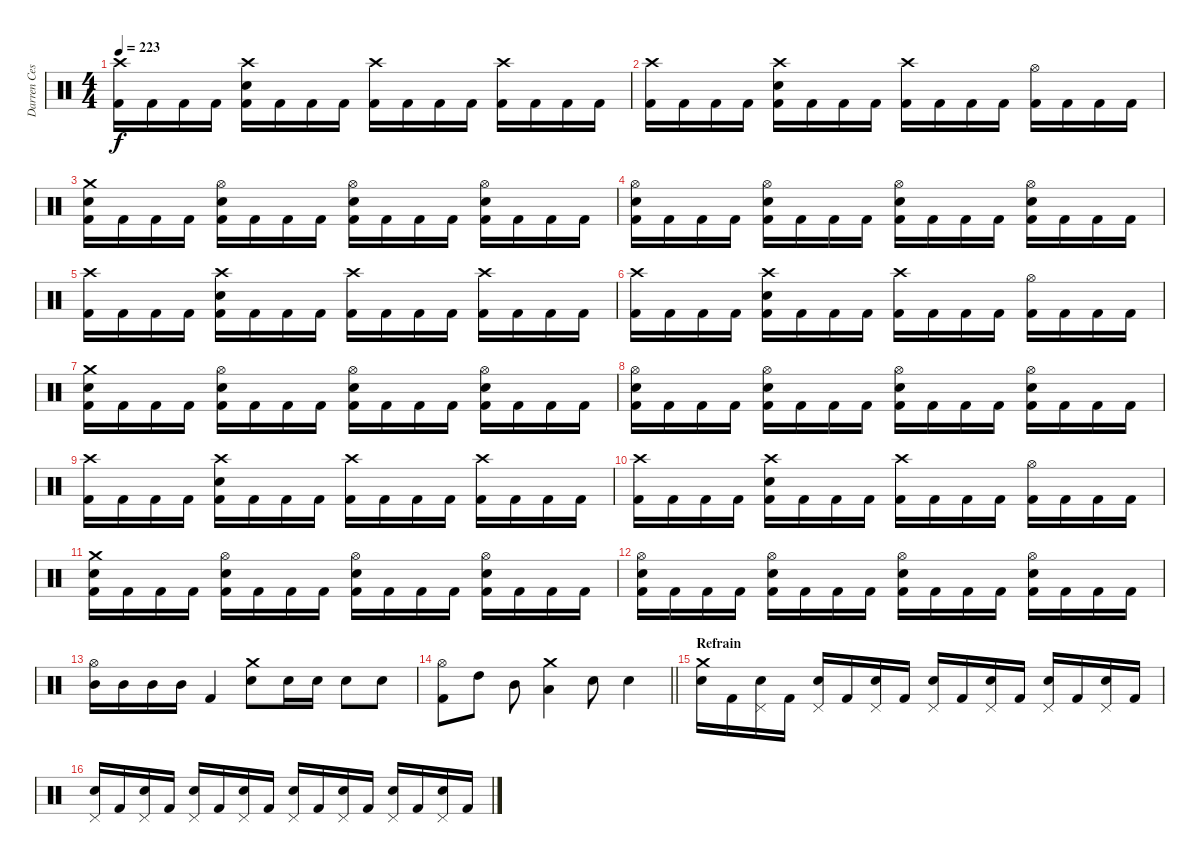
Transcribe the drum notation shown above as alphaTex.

\track ("Darren Cesca" "Darren Ces") {instrument percussion}
\staff {score}
\articulation defaults
\ts (4 4)
\tempo 223
\clef neutral
\ks c
("Crash high (hit)" "Kick (hit) 2").16{dy f} "Kick (hit) 2".16 "Kick (hit) 2".16 "Kick (hit) 2".16 ("Crash high (hit)" "Electric Snare (hit)" "Kick (hit) 2").16 "Kick (hit) 2".16 "Kick (hit) 2".16 "Kick (hit) 2".16 ("Crash high (hit)" "Kick (hit) 2").16 "Kick (hit) 2".16 "Kick (hit) 2".16 "Kick (hit) 2".16 ("Crash high (hit)" "Kick (hit) 2").16 "Kick (hit) 2".16 "Kick (hit) 2".16 "Kick (hit) 2".16 |
("Crash high (hit)" "Kick (hit) 2").16 "Kick (hit) 2".16 "Kick (hit) 2".16 "Kick (hit) 2".16 ("Crash high (hit)" "Electric Snare (hit)" "Kick (hit) 2").16 "Kick (hit) 2".16 "Kick (hit) 2".16 "Kick (hit) 2".16 ("Crash high (hit)" "Kick (hit) 2").16 "Kick (hit) 2".16 "Kick (hit) 2".16 "Kick (hit) 2".16 ("Hi-Hat (open)" "Kick (hit) 2").16 "Kick (hit) 2".16 "Kick (hit) 2".16 "Kick (hit) 2".16 |
("Crash medium (hit)" "Electric Snare (hit)" "Kick (hit) 2").16 "Kick (hit) 2".16 "Kick (hit) 2".16 "Kick (hit) 2".16 ("Hi-Hat (open)" "Electric Snare (hit)" "Kick (hit) 2").16 "Kick (hit) 2".16 "Kick (hit) 2".16 "Kick (hit) 2".16 ("Hi-Hat (open)" "Electric Snare (hit)" "Kick (hit) 2").16 "Kick (hit) 2".16 "Kick (hit) 2".16 "Kick (hit) 2".16 ("Hi-Hat (open)" "Electric Snare (hit)" "Kick (hit) 2").16 "Kick (hit) 2".16 "Kick (hit) 2".16 "Kick (hit) 2".16 |
("Hi-Hat (open)" "Electric Snare (hit)" "Kick (hit) 2").16 "Kick (hit) 2".16 "Kick (hit) 2".16 "Kick (hit) 2".16 ("Hi-Hat (open)" "Electric Snare (hit)" "Kick (hit) 2").16 "Kick (hit) 2".16 "Kick (hit) 2".16 "Kick (hit) 2".16 ("Hi-Hat (open)" "Electric Snare (hit)" "Kick (hit) 2").16 "Kick (hit) 2".16 "Kick (hit) 2".16 "Kick (hit) 2".16 ("Hi-Hat (open)" "Electric Snare (hit)" "Kick (hit) 2").16 "Kick (hit) 2".16 "Kick (hit) 2".16 "Kick (hit) 2".16 |
("Crash high (hit)" "Kick (hit) 2").16 "Kick (hit) 2".16 "Kick (hit) 2".16 "Kick (hit) 2".16 ("Crash high (hit)" "Electric Snare (hit)" "Kick (hit) 2").16 "Kick (hit) 2".16 "Kick (hit) 2".16 "Kick (hit) 2".16 ("Crash high (hit)" "Kick (hit) 2").16 "Kick (hit) 2".16 "Kick (hit) 2".16 "Kick (hit) 2".16 ("Crash high (hit)" "Kick (hit) 2").16 "Kick (hit) 2".16 "Kick (hit) 2".16 "Kick (hit) 2".16 |
("Crash high (hit)" "Kick (hit) 2").16 "Kick (hit) 2".16 "Kick (hit) 2".16 "Kick (hit) 2".16 ("Crash high (hit)" "Electric Snare (hit)" "Kick (hit) 2").16 "Kick (hit) 2".16 "Kick (hit) 2".16 "Kick (hit) 2".16 ("Crash high (hit)" "Kick (hit) 2").16 "Kick (hit) 2".16 "Kick (hit) 2".16 "Kick (hit) 2".16 ("Hi-Hat (open)" "Kick (hit) 2").16 "Kick (hit) 2".16 "Kick (hit) 2".16 "Kick (hit) 2".16 |
("Crash medium (hit)" "Electric Snare (hit)" "Kick (hit) 2").16 "Kick (hit) 2".16 "Kick (hit) 2".16 "Kick (hit) 2".16 ("Hi-Hat (open)" "Electric Snare (hit)" "Kick (hit) 2").16 "Kick (hit) 2".16 "Kick (hit) 2".16 "Kick (hit) 2".16 ("Hi-Hat (open)" "Electric Snare (hit)" "Kick (hit) 2").16 "Kick (hit) 2".16 "Kick (hit) 2".16 "Kick (hit) 2".16 ("Hi-Hat (open)" "Electric Snare (hit)" "Kick (hit) 2").16 "Kick (hit) 2".16 "Kick (hit) 2".16 "Kick (hit) 2".16 |
("Hi-Hat (open)" "Electric Snare (hit)" "Kick (hit) 2").16 "Kick (hit) 2".16 "Kick (hit) 2".16 "Kick (hit) 2".16 ("Hi-Hat (open)" "Electric Snare (hit)" "Kick (hit) 2").16 "Kick (hit) 2".16 "Kick (hit) 2".16 "Kick (hit) 2".16 ("Hi-Hat (open)" "Electric Snare (hit)" "Kick (hit) 2").16 "Kick (hit) 2".16 "Kick (hit) 2".16 "Kick (hit) 2".16 ("Hi-Hat (open)" "Electric Snare (hit)" "Kick (hit) 2").16 "Kick (hit) 2".16 "Kick (hit) 2".16 "Kick (hit) 2".16 |
("Crash high (hit)" "Kick (hit) 2").16 "Kick (hit) 2".16 "Kick (hit) 2".16 "Kick (hit) 2".16 ("Crash high (hit)" "Electric Snare (hit)" "Kick (hit) 2").16 "Kick (hit) 2".16 "Kick (hit) 2".16 "Kick (hit) 2".16 ("Crash high (hit)" "Kick (hit) 2").16 "Kick (hit) 2".16 "Kick (hit) 2".16 "Kick (hit) 2".16 ("Crash high (hit)" "Kick (hit) 2").16 "Kick (hit) 2".16 "Kick (hit) 2".16 "Kick (hit) 2".16 |
("Crash high (hit)" "Kick (hit) 2").16 "Kick (hit) 2".16 "Kick (hit) 2".16 "Kick (hit) 2".16 ("Crash high (hit)" "Electric Snare (hit)" "Kick (hit) 2").16 "Kick (hit) 2".16 "Kick (hit) 2".16 "Kick (hit) 2".16 ("Crash high (hit)" "Kick (hit) 2").16 "Kick (hit) 2".16 "Kick (hit) 2".16 "Kick (hit) 2".16 ("Hi-Hat (open)" "Kick (hit) 2").16 "Kick (hit) 2".16 "Kick (hit) 2".16 "Kick (hit) 2".16 |
("Crash medium (hit)" "Electric Snare (hit)" "Kick (hit) 2").16 "Kick (hit) 2".16 "Kick (hit) 2".16 "Kick (hit) 2".16 ("Hi-Hat (open)" "Electric Snare (hit)" "Kick (hit) 2").16 "Kick (hit) 2".16 "Kick (hit) 2".16 "Kick (hit) 2".16 ("Hi-Hat (open)" "Electric Snare (hit)" "Kick (hit) 2").16 "Kick (hit) 2".16 "Kick (hit) 2".16 "Kick (hit) 2".16 ("Hi-Hat (open)" "Electric Snare (hit)" "Kick (hit) 2").16 "Kick (hit) 2".16 "Kick (hit) 2".16 "Kick (hit) 2".16 |
("Hi-Hat (open)" "Electric Snare (hit)" "Kick (hit) 2").16 "Kick (hit) 2".16 "Kick (hit) 2".16 "Kick (hit) 2".16 ("Hi-Hat (open)" "Electric Snare (hit)" "Kick (hit) 2").16 "Kick (hit) 2".16 "Kick (hit) 2".16 "Kick (hit) 2".16 ("Hi-Hat (open)" "Electric Snare (hit)" "Kick (hit) 2").16 "Kick (hit) 2".16 "Kick (hit) 2".16 "Kick (hit) 2".16 ("Hi-Hat (open)" "Electric Snare (hit)" "Kick (hit) 2").16 "Kick (hit) 2".16 "Kick (hit) 2".16 "Kick (hit) 2".16 |
("Hi-Hat (open)" "Mid Tom (hit)").16 "Mid Tom (hit)".16 "Mid Tom (hit)".16 "Mid Tom (hit)".16 "Kick (hit) 2".4 ("Crash medium (hit)" "Electric Snare (hit)").8 "Electric Snare (hit)".16 "Electric Snare (hit)".16 "Electric Snare (hit)".8 "Electric Snare (hit)".8 |
\barLineRight lightlight
("Hi-Hat (open)" "Kick (hit) 2").8 "High Tom (hit)".8 "Mid Tom (hit)".8 ("Crash medium (hit)" "Low Tom (hit)").4 "Electric Snare (hit)".8 "Electric Snare (hit)".4 |
\section ("" "Refrain")
("Crash medium (hit)" "Electric Snare (hit)").16 "Kick (hit) 2".16 ("Pedal Hi-Hat (hit)" "Electric Snare (hit)").16 "Kick (hit) 2".16 ("Pedal Hi-Hat (hit)" "Electric Snare (hit)").16 "Kick (hit) 2".16 ("Pedal Hi-Hat (hit)" "Electric Snare (hit)").16 "Kick (hit) 2".16 ("Pedal Hi-Hat (hit)" "Electric Snare (hit)").16 "Kick (hit) 2".16 ("Pedal Hi-Hat (hit)" "Electric Snare (hit)").16 "Kick (hit) 2".16 ("Pedal Hi-Hat (hit)" "Electric Snare (hit)").16 "Kick (hit) 2".16 ("Pedal Hi-Hat (hit)" "Electric Snare (hit)").16 "Kick (hit) 2".16 |
("Pedal Hi-Hat (hit)" "Electric Snare (hit)").16 "Kick (hit) 2".16 ("Pedal Hi-Hat (hit)" "Electric Snare (hit)").16 "Kick (hit) 2".16 ("Pedal Hi-Hat (hit)" "Electric Snare (hit)").16 "Kick (hit) 2".16 ("Pedal Hi-Hat (hit)" "Electric Snare (hit)").16 "Kick (hit) 2".16 ("Pedal Hi-Hat (hit)" "Electric Snare (hit)").16 "Kick (hit) 2".16 ("Pedal Hi-Hat (hit)" "Electric Snare (hit)").16 "Kick (hit) 2".16 ("Pedal Hi-Hat (hit)" "Electric Snare (hit)").16 "Kick (hit) 2".16 ("Pedal Hi-Hat (hit)" "Electric Snare (hit)").16 "Kick (hit) 2".16
